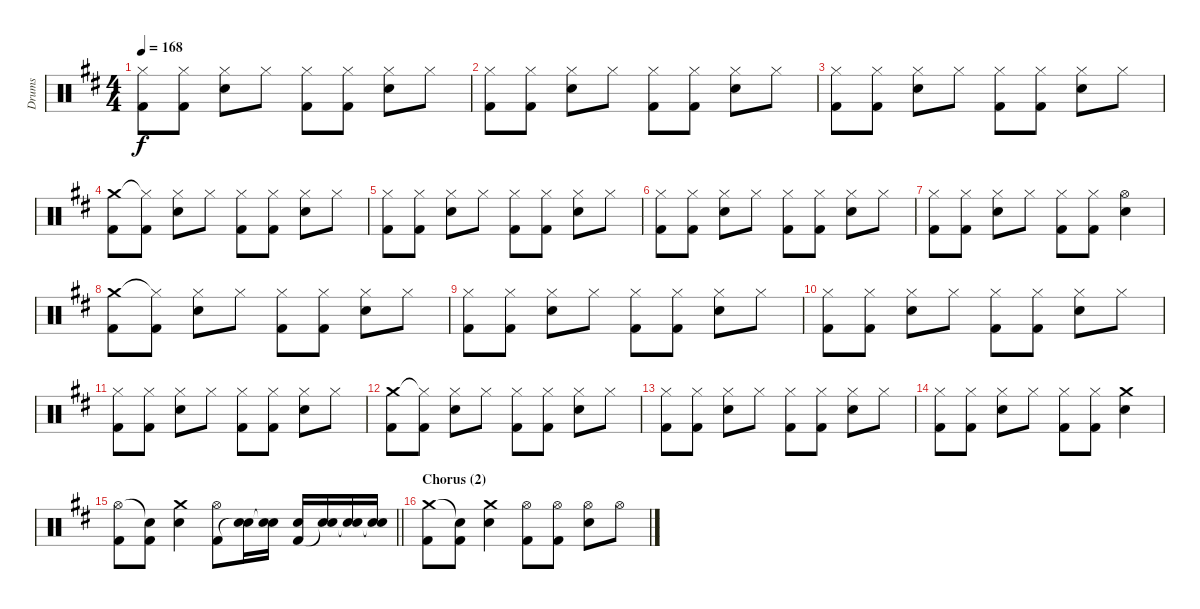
\track ("Drums" "Drums") {instrument percussion}
\staff {score}
\articulation defaults
\ts (4 4)
\tempo 168
\clef neutral
\ks d
("Hi-Hat (closed)" "Kick (hit) 2").8{dy f} ("Hi-Hat (closed)" "Kick (hit) 2").8 ("Hi-Hat (closed)" "Electric Snare (hit)").8 "Hi-Hat (closed)".8 ("Hi-Hat (closed)" "Kick (hit) 2").8 ("Hi-Hat (closed)" "Kick (hit) 2").8 ("Hi-Hat (closed)" "Electric Snare (hit)").8 "Hi-Hat (closed)".8 |
("Hi-Hat (closed)" "Kick (hit) 2").8 ("Hi-Hat (closed)" "Kick (hit) 2").8 ("Hi-Hat (closed)" "Electric Snare (hit)").8 "Hi-Hat (closed)".8 ("Hi-Hat (closed)" "Kick (hit) 2").8 ("Hi-Hat (closed)" "Kick (hit) 2").8 ("Hi-Hat (closed)" "Electric Snare (hit)").8 "Hi-Hat (closed)".8 |
("Hi-Hat (closed)" "Kick (hit) 2").8 ("Hi-Hat (closed)" "Kick (hit) 2").8 ("Hi-Hat (closed)" "Electric Snare (hit)").8 "Hi-Hat (closed)".8 ("Hi-Hat (closed)" "Kick (hit) 2").8 ("Hi-Hat (closed)" "Kick (hit) 2").8 ("Hi-Hat (closed)" "Electric Snare (hit)").8 "Hi-Hat (closed)".8 |
("Crash medium (hit)" "Kick (hit) 2").8 ("Hi-Hat (closed)"{t} "Kick (hit) 2").8 ("Hi-Hat (closed)" "Electric Snare (hit)").8 "Hi-Hat (closed)".8 ("Hi-Hat (closed)" "Kick (hit) 2").8 ("Hi-Hat (closed)" "Kick (hit) 2").8 ("Hi-Hat (closed)" "Electric Snare (hit)").8 "Hi-Hat (closed)".8 |
("Hi-Hat (closed)" "Kick (hit) 2").8 ("Hi-Hat (closed)" "Kick (hit) 2").8 ("Hi-Hat (closed)" "Electric Snare (hit)").8 "Hi-Hat (closed)".8 ("Hi-Hat (closed)" "Kick (hit) 2").8 ("Hi-Hat (closed)" "Kick (hit) 2").8 ("Hi-Hat (closed)" "Electric Snare (hit)").8 "Hi-Hat (closed)".8 |
("Hi-Hat (closed)" "Kick (hit) 2").8 ("Hi-Hat (closed)" "Kick (hit) 2").8 ("Hi-Hat (closed)" "Electric Snare (hit)").8 "Hi-Hat (closed)".8 ("Hi-Hat (closed)" "Kick (hit) 2").8 ("Hi-Hat (closed)" "Kick (hit) 2").8 ("Hi-Hat (closed)" "Electric Snare (hit)").8 "Hi-Hat (closed)".8 |
("Hi-Hat (closed)" "Kick (hit) 2").8 ("Hi-Hat (closed)" "Kick (hit) 2").8 ("Hi-Hat (closed)" "Electric Snare (hit)").8 "Hi-Hat (closed)".8 ("Hi-Hat (closed)" "Kick (hit) 2").8 ("Hi-Hat (closed)" "Kick (hit) 2").8 ("Hi-Hat (open)" "Electric Snare (hit)").4 |
("Crash medium (hit)" "Kick (hit) 2").8 ("Hi-Hat (closed)"{t} "Kick (hit) 2").8 ("Hi-Hat (closed)" "Electric Snare (hit)").8 "Hi-Hat (closed)".8 ("Hi-Hat (closed)" "Kick (hit) 2").8 ("Hi-Hat (closed)" "Kick (hit) 2").8 ("Hi-Hat (closed)" "Electric Snare (hit)").8 "Hi-Hat (closed)".8 |
("Hi-Hat (closed)" "Kick (hit) 2").8 ("Hi-Hat (closed)" "Kick (hit) 2").8 ("Hi-Hat (closed)" "Electric Snare (hit)").8 "Hi-Hat (closed)".8 ("Hi-Hat (closed)" "Kick (hit) 2").8 ("Hi-Hat (closed)" "Kick (hit) 2").8 ("Hi-Hat (closed)" "Electric Snare (hit)").8 "Hi-Hat (closed)".8 |
("Hi-Hat (closed)" "Kick (hit) 2").8 ("Hi-Hat (closed)" "Kick (hit) 2").8 ("Hi-Hat (closed)" "Electric Snare (hit)").8 "Hi-Hat (closed)".8 ("Hi-Hat (closed)" "Kick (hit) 2").8 ("Hi-Hat (closed)" "Kick (hit) 2").8 ("Hi-Hat (closed)" "Electric Snare (hit)").8 "Hi-Hat (closed)".8 |
("Hi-Hat (closed)" "Kick (hit) 2").8 ("Hi-Hat (closed)" "Kick (hit) 2").8 ("Hi-Hat (closed)" "Electric Snare (hit)").8 "Hi-Hat (closed)".8 ("Hi-Hat (closed)" "Kick (hit) 2").8 ("Hi-Hat (closed)" "Kick (hit) 2").8 ("Hi-Hat (closed)" "Electric Snare (hit)").8 "Hi-Hat (closed)".8 |
("Crash medium (hit)" "Kick (hit) 2").8 ("Hi-Hat (closed)"{t} "Kick (hit) 2").8 ("Hi-Hat (closed)" "Electric Snare (hit)").8 "Hi-Hat (closed)".8 ("Hi-Hat (closed)" "Kick (hit) 2").8 ("Hi-Hat (closed)" "Kick (hit) 2").8 ("Hi-Hat (closed)" "Electric Snare (hit)").8 "Hi-Hat (closed)".8 |
("Hi-Hat (closed)" "Kick (hit) 2").8 ("Hi-Hat (closed)" "Kick (hit) 2").8 ("Hi-Hat (closed)" "Electric Snare (hit)").8 "Hi-Hat (closed)".8 ("Hi-Hat (closed)" "Kick (hit) 2").8 ("Hi-Hat (closed)" "Kick (hit) 2").8 ("Hi-Hat (closed)" "Electric Snare (hit)").8 "Hi-Hat (closed)".8 |
("Hi-Hat (closed)" "Kick (hit) 2").8 ("Hi-Hat (closed)" "Kick (hit) 2").8 ("Hi-Hat (closed)" "Electric Snare (hit)").8 "Hi-Hat (closed)".8 ("Hi-Hat (closed)" "Kick (hit) 2").8 ("Hi-Hat (closed)" "Kick (hit) 2").8 ("Crash medium (hit)" "Electric Snare (hit)").4 |
\barLineRight lightlight
("Hi-Hat (open)" "Kick (hit) 2").8 ("Snare (hit)"{t} "Kick (hit) 2").8 ("Crash medium (hit)" "Electric Snare (hit)").4 ("Hi-Hat (open)" "Kick (hit) 2").8 ("Electric Snare (hit)" "Snare (hit)"{t}).16 ("Electric Snare (hit)" "Snare (hit)"{t}).16 ("Electric Snare (hit)" "Kick (hit) 2").16 ("Electric Snare (hit)" "Snare (hit)"{t}).16 ("Electric Snare (hit)" "Snare (hit)"{t}).16 ("Electric Snare (hit)" "Snare (hit)"{t}).16 |
\section ("" "Chorus (2)")
("Crash medium (hit)" "Kick (hit) 2").8 ("Snare (hit)"{t} "Kick (hit) 2").8 ("Crash medium (hit)" "Electric Snare (hit)").4 ("Hi-Hat (open)" "Kick (hit) 2").8 ("Hi-Hat (open)" "Kick (hit) 2").8 ("Hi-Hat (open)" "Electric Snare (hit)").8 "Hi-Hat (open)".8
